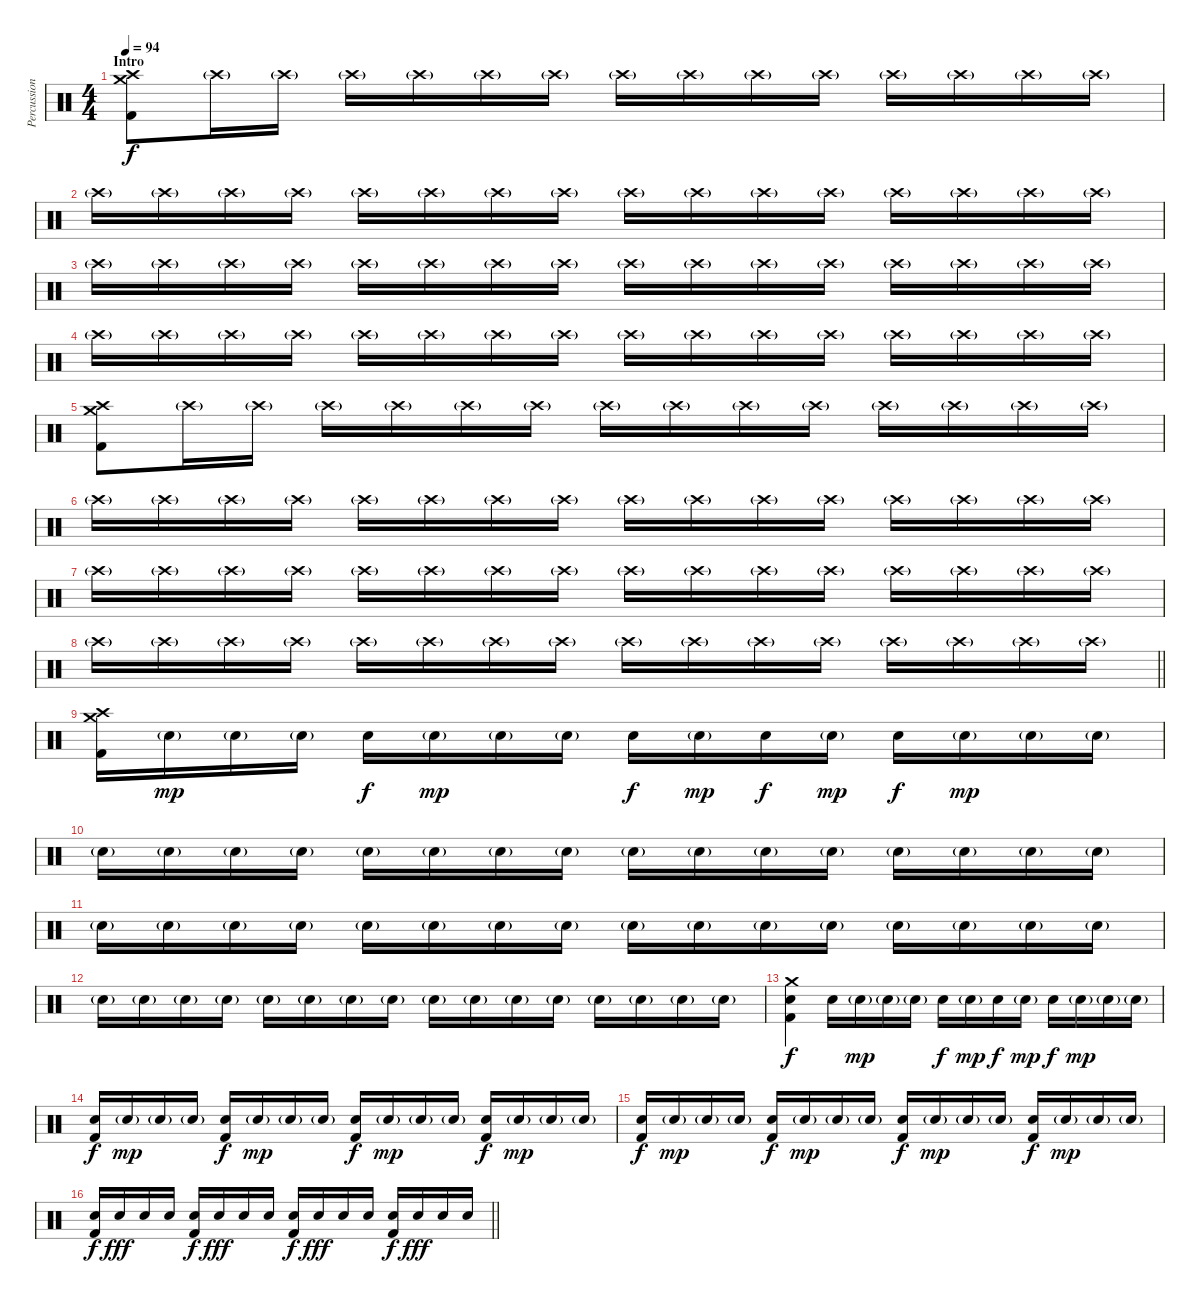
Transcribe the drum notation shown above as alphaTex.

\track ("Percussion" "Percussion") {solo instrument percussion}
\staff {score}
\articulation defaults
\ts (4 4)
\section ("" "Intro")
\tempo 94
\tempo 149
\tempo 94
\clef neutral
\ks c
("Crash high (hit)" "Crash medium (hit)" "Kick (hit) 2").8{dy f} "Crash high (hit)"{g}.16 "Crash high (hit)"{g}.16 "Crash high (hit)"{g}.16 "Crash high (hit)"{g}.16 "Crash high (hit)"{g}.16 "Crash high (hit)"{g}.16 "Crash high (hit)"{g}.16 "Crash high (hit)"{g}.16 "Crash high (hit)"{g}.16 "Crash high (hit)"{g}.16 "Crash high (hit)"{g}.16 "Crash high (hit)"{g}.16 "Crash high (hit)"{g}.16 "Crash high (hit)"{g}.16 |
"Crash high (hit)"{g}.16 "Crash high (hit)"{g}.16 "Crash high (hit)"{g}.16 "Crash high (hit)"{g}.16 "Crash high (hit)"{g}.16 "Crash high (hit)"{g}.16 "Crash high (hit)"{g}.16 "Crash high (hit)"{g}.16 "Crash high (hit)"{g}.16 "Crash high (hit)"{g}.16 "Crash high (hit)"{g}.16 "Crash high (hit)"{g}.16 "Crash high (hit)"{g}.16 "Crash high (hit)"{g}.16 "Crash high (hit)"{g}.16 "Crash high (hit)"{g}.16 |
"Crash high (hit)"{g}.16 "Crash high (hit)"{g}.16 "Crash high (hit)"{g}.16 "Crash high (hit)"{g}.16 "Crash high (hit)"{g}.16 "Crash high (hit)"{g}.16 "Crash high (hit)"{g}.16 "Crash high (hit)"{g}.16 "Crash high (hit)"{g}.16 "Crash high (hit)"{g}.16 "Crash high (hit)"{g}.16 "Crash high (hit)"{g}.16 "Crash high (hit)"{g}.16 "Crash high (hit)"{g}.16 "Crash high (hit)"{g}.16 "Crash high (hit)"{g}.16 |
"Crash high (hit)"{g}.16 "Crash high (hit)"{g}.16 "Crash high (hit)"{g}.16 "Crash high (hit)"{g}.16 "Crash high (hit)"{g}.16 "Crash high (hit)"{g}.16 "Crash high (hit)"{g}.16 "Crash high (hit)"{g}.16 "Crash high (hit)"{g}.16 "Crash high (hit)"{g}.16 "Crash high (hit)"{g}.16 "Crash high (hit)"{g}.16 "Crash high (hit)"{g}.16 "Crash high (hit)"{g}.16 "Crash high (hit)"{g}.16 "Crash high (hit)"{g}.16 |
("Crash high (hit)" "Crash medium (hit)" "Kick (hit) 2").8 "Crash high (hit)"{g}.16 "Crash high (hit)"{g}.16 "Crash high (hit)"{g}.16 "Crash high (hit)"{g}.16 "Crash high (hit)"{g}.16 "Crash high (hit)"{g}.16 "Crash high (hit)"{g}.16 "Crash high (hit)"{g}.16 "Crash high (hit)"{g}.16 "Crash high (hit)"{g}.16 "Crash high (hit)"{g}.16 "Crash high (hit)"{g}.16 "Crash high (hit)"{g}.16 "Crash high (hit)"{g}.16 |
"Crash high (hit)"{g}.16 "Crash high (hit)"{g}.16 "Crash high (hit)"{g}.16 "Crash high (hit)"{g}.16 "Crash high (hit)"{g}.16 "Crash high (hit)"{g}.16 "Crash high (hit)"{g}.16 "Crash high (hit)"{g}.16 "Crash high (hit)"{g}.16 "Crash high (hit)"{g}.16 "Crash high (hit)"{g}.16 "Crash high (hit)"{g}.16 "Crash high (hit)"{g}.16 "Crash high (hit)"{g}.16 "Crash high (hit)"{g}.16 "Crash high (hit)"{g}.16 |
"Crash high (hit)"{g}.16 "Crash high (hit)"{g}.16 "Crash high (hit)"{g}.16 "Crash high (hit)"{g}.16 "Crash high (hit)"{g}.16 "Crash high (hit)"{g}.16 "Crash high (hit)"{g}.16 "Crash high (hit)"{g}.16 "Crash high (hit)"{g}.16 "Crash high (hit)"{g}.16 "Crash high (hit)"{g}.16 "Crash high (hit)"{g}.16 "Crash high (hit)"{g}.16 "Crash high (hit)"{g}.16 "Crash high (hit)"{g}.16 "Crash high (hit)"{g}.16 |
\barLineRight lightlight "Crash high (hit)"{g}.16 "Crash high (hit)"{g}.16 "Crash high (hit)"{g}.16 "Crash high (hit)"{g}.16 "Crash high (hit)"{g}.16 "Crash high (hit)"{g}.16 "Crash high (hit)"{g}.16 "Crash high (hit)"{g}.16 "Crash high (hit)"{g}.16 "Crash high (hit)"{g}.16 "Crash high (hit)"{g}.16 "Crash high (hit)"{g}.16 "Crash high (hit)"{g}.16 "Crash high (hit)"{g}.16 "Crash high (hit)"{g}.16 "Crash high (hit)"{g}.16
|
("Crash high (hit)" "Crash medium (hit)" "Kick (hit) 2").16 "Electric Snare (hit)"{g}.16{dy mp} "Electric Snare (hit)"{g}.16 "Electric Snare (hit)"{g}.16 "Electric Snare (hit)".16{dy f} "Electric Snare (hit)"{g}.16{dy mp} "Electric Snare (hit)"{g}.16 "Electric Snare (hit)"{g}.16 "Electric Snare (hit)".16{dy f} "Electric Snare (hit)"{g}.16{dy mp} "Electric Snare (hit)".16{dy f} "Electric Snare (hit)"{g}.16{dy mp} "Electric Snare (hit)".16{dy f} "Electric Snare (hit)"{g}.16{dy mp} "Electric Snare (hit)"{g}.16 "Electric Snare (hit)"{g}.16 |
"Electric Snare (hit)"{g}.16 "Electric Snare (hit)"{g}.16 "Electric Snare (hit)"{g}.16 "Electric Snare (hit)"{g}.16 "Electric Snare (hit)"{g}.16 "Electric Snare (hit)"{g}.16 "Electric Snare (hit)"{g}.16 "Electric Snare (hit)"{g}.16 "Electric Snare (hit)"{g}.16 "Electric Snare (hit)"{g}.16 "Electric Snare (hit)"{g}.16 "Electric Snare (hit)"{g}.16 "Electric Snare (hit)"{g}.16 "Electric Snare (hit)"{g}.16 "Electric Snare (hit)"{g}.16 "Electric Snare (hit)"{g}.16 |
"Electric Snare (hit)"{g}.16 "Electric Snare (hit)"{g}.16 "Electric Snare (hit)"{g}.16 "Electric Snare (hit)"{g}.16 "Electric Snare (hit)"{g}.16 "Electric Snare (hit)"{g}.16 "Electric Snare (hit)"{g}.16 "Electric Snare (hit)"{g}.16 "Electric Snare (hit)"{g}.16 "Electric Snare (hit)"{g}.16 "Electric Snare (hit)"{g}.16 "Electric Snare (hit)"{g}.16 "Electric Snare (hit)"{g}.16 "Electric Snare (hit)"{g}.16 "Electric Snare (hit)"{g}.16 "Electric Snare (hit)"{g}.16 |
"Electric Snare (hit)"{g}.16 "Electric Snare (hit)"{g}.16 "Electric Snare (hit)"{g}.16 "Electric Snare (hit)"{g}.16 "Electric Snare (hit)"{g}.16 "Electric Snare (hit)"{g}.16 "Electric Snare (hit)"{g}.16 "Electric Snare (hit)"{g}.16 "Electric Snare (hit)"{g}.16 "Electric Snare (hit)"{g}.16 "Electric Snare (hit)"{g}.16 "Electric Snare (hit)"{g}.16 "Electric Snare (hit)"{g}.16 "Electric Snare (hit)"{g}.16 "Electric Snare (hit)"{g}.16 "Electric Snare (hit)"{g}.16 |
("Crash medium (hit)" "Electric Snare (hit)" "Kick (hit) 2").4{dy f} "Electric Snare (hit)".16 "Electric Snare (hit)"{g}.16{dy mp} "Electric Snare (hit)"{g}.16 "Electric Snare (hit)"{g}.16 "Electric Snare (hit)".16{dy f} "Electric Snare (hit)"{g}.16{dy mp} "Electric Snare (hit)".16{dy f} "Electric Snare (hit)"{g}.16{dy mp} "Electric Snare (hit)".16{dy f} "Electric Snare (hit)"{g}.16{dy mp} "Electric Snare (hit)"{g}.16 "Electric Snare (hit)"{g}.16 |
("Electric Snare (hit)" "Kick (hit) 2").16{dy f} "Electric Snare (hit)"{g}.16{dy mp} "Electric Snare (hit)"{g}.16 "Electric Snare (hit)"{g}.16 ("Electric Snare (hit)" "Kick (hit) 2").16{dy f} "Electric Snare (hit)"{g}.16{dy mp} "Electric Snare (hit)"{g}.16 "Electric Snare (hit)"{g}.16 ("Electric Snare (hit)" "Kick (hit) 2").16{dy f} "Electric Snare (hit)"{g}.16{dy mp} "Electric Snare (hit)"{g}.16 "Electric Snare (hit)"{g}.16 ("Electric Snare (hit)" "Kick (hit) 2").16{dy f} "Electric Snare (hit)"{g}.16{dy mp} "Electric Snare (hit)"{g}.16 "Electric Snare (hit)"{g}.16 |
("Electric Snare (hit)" "Kick (hit) 2").16{dy f} "Electric Snare (hit)"{g}.16{dy mp} "Electric Snare (hit)"{g}.16 "Electric Snare (hit)"{g}.16 ("Electric Snare (hit)" "Kick (hit) 2").16{dy f} "Electric Snare (hit)"{g}.16{dy mp} "Electric Snare (hit)"{g}.16 "Electric Snare (hit)"{g}.16 ("Electric Snare (hit)" "Kick (hit) 2").16{dy f} "Electric Snare (hit)"{g}.16{dy mp} "Electric Snare (hit)"{g}.16 "Electric Snare (hit)"{g}.16 ("Electric Snare (hit)" "Kick (hit) 2").16{dy f} "Electric Snare (hit)"{g}.16{dy mp} "Electric Snare (hit)"{g}.16 "Electric Snare (hit)"{g}.16 |
\barLineRight lightlight
("Electric Snare (hit)" "Kick (hit) 2").16{dy f} "Electric Snare (hit)".16{dy fff} "Electric Snare (hit)".16 "Electric Snare (hit)".16 ("Electric Snare (hit)" "Kick (hit) 2").16{dy f} "Electric Snare (hit)".16{dy fff} "Electric Snare (hit)".16 "Electric Snare (hit)".16 ("Electric Snare (hit)" "Kick (hit) 2").16{dy f} "Electric Snare (hit)".16{dy fff} "Electric Snare (hit)".16 "Electric Snare (hit)".16 ("Electric Snare (hit)" "Kick (hit) 2").16{dy f} "Electric Snare (hit)".16{dy fff} "Electric Snare (hit)".16 "Electric Snare (hit)".16
